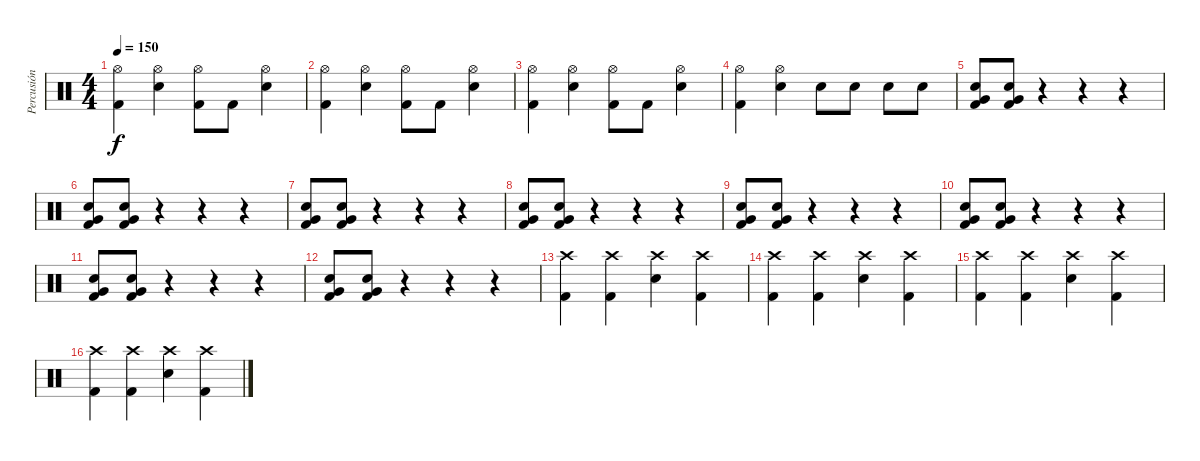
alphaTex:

\track ("Percusión" "Percusión") {instrument percussion}
\staff {score}
\articulation defaults
\ts (4 4)
\tempo 150
\clef neutral
\ks c
("Hi-Hat (open)" "Kick (hit) 2").4{dy f} ("Hi-Hat (open)" "Electric Snare (hit)").4 ("Hi-Hat (open)" "Kick (hit) 2").8 "Kick (hit) 2".8 ("Hi-Hat (open)" "Electric Snare (hit)").4 |
("Hi-Hat (open)" "Kick (hit) 2").4 ("Hi-Hat (open)" "Electric Snare (hit)").4 ("Hi-Hat (open)" "Kick (hit) 2").8 "Kick (hit) 2".8 ("Hi-Hat (open)" "Electric Snare (hit)").4 |
("Hi-Hat (open)" "Kick (hit) 2").4 ("Hi-Hat (open)" "Electric Snare (hit)").4 ("Hi-Hat (open)" "Kick (hit) 2").8 "Kick (hit) 2".8 ("Hi-Hat (open)" "Electric Snare (hit)").4 |
("Hi-Hat (open)" "Kick (hit) 2").4 ("Hi-Hat (open)" "Electric Snare (hit)").4 "Electric Snare (hit)".8 "Electric Snare (hit)".8 "Electric Snare (hit)".8 "Electric Snare (hit)".8 |
("Very Low Tom (hit)" "Electric Snare (hit)" "Kick (hit) 2").8 ("Very Low Tom (hit)" "Electric Snare (hit)" "Kick (hit) 2").8 r.4 r.4 r.4 |
("Very Low Tom (hit)" "Electric Snare (hit)" "Kick (hit) 2").8 ("Very Low Tom (hit)" "Electric Snare (hit)" "Kick (hit) 2").8 r.4 r.4 r.4 |
("Very Low Tom (hit)" "Electric Snare (hit)" "Kick (hit) 2").8 ("Very Low Tom (hit)" "Electric Snare (hit)" "Kick (hit) 2").8 r.4 r.4 r.4 |
("Very Low Tom (hit)" "Electric Snare (hit)" "Kick (hit) 2").8 ("Very Low Tom (hit)" "Electric Snare (hit)" "Kick (hit) 2").8 r.4 r.4 r.4 |
("Very Low Tom (hit)" "Electric Snare (hit)" "Kick (hit) 2").8 ("Very Low Tom (hit)" "Electric Snare (hit)" "Kick (hit) 2").8 r.4 r.4 r.4 |
("Very Low Tom (hit)" "Electric Snare (hit)" "Kick (hit) 2").8 ("Very Low Tom (hit)" "Electric Snare (hit)" "Kick (hit) 2").8 r.4 r.4 r.4 |
("Very Low Tom (hit)" "Electric Snare (hit)" "Kick (hit) 2").8 ("Very Low Tom (hit)" "Electric Snare (hit)" "Kick (hit) 2").8 r.4 r.4 r.4 |
("Very Low Tom (hit)" "Electric Snare (hit)" "Kick (hit) 2").8 ("Very Low Tom (hit)" "Electric Snare (hit)" "Kick (hit) 2").8 r.4 r.4 r.4 |
("Crash high (hit)" "Kick (hit) 2").4 ("Crash high (hit)" "Kick (hit) 2").4 ("Crash high (hit)" "Electric Snare (hit)").4 ("Crash high (hit)" "Kick (hit) 2").4 |
("Crash high (hit)" "Kick (hit) 2").4 ("Crash high (hit)" "Kick (hit) 2").4 ("Crash high (hit)" "Electric Snare (hit)").4 ("Crash high (hit)" "Kick (hit) 2").4 |
("Crash high (hit)" "Kick (hit) 2").4 ("Crash high (hit)" "Kick (hit) 2").4 ("Crash high (hit)" "Electric Snare (hit)").4 ("Crash high (hit)" "Kick (hit) 2").4 |
("Crash high (hit)" "Kick (hit) 2").4 ("Crash high (hit)" "Kick (hit) 2").4 ("Crash high (hit)" "Electric Snare (hit)").4 ("Crash high (hit)" "Kick (hit) 2").4
